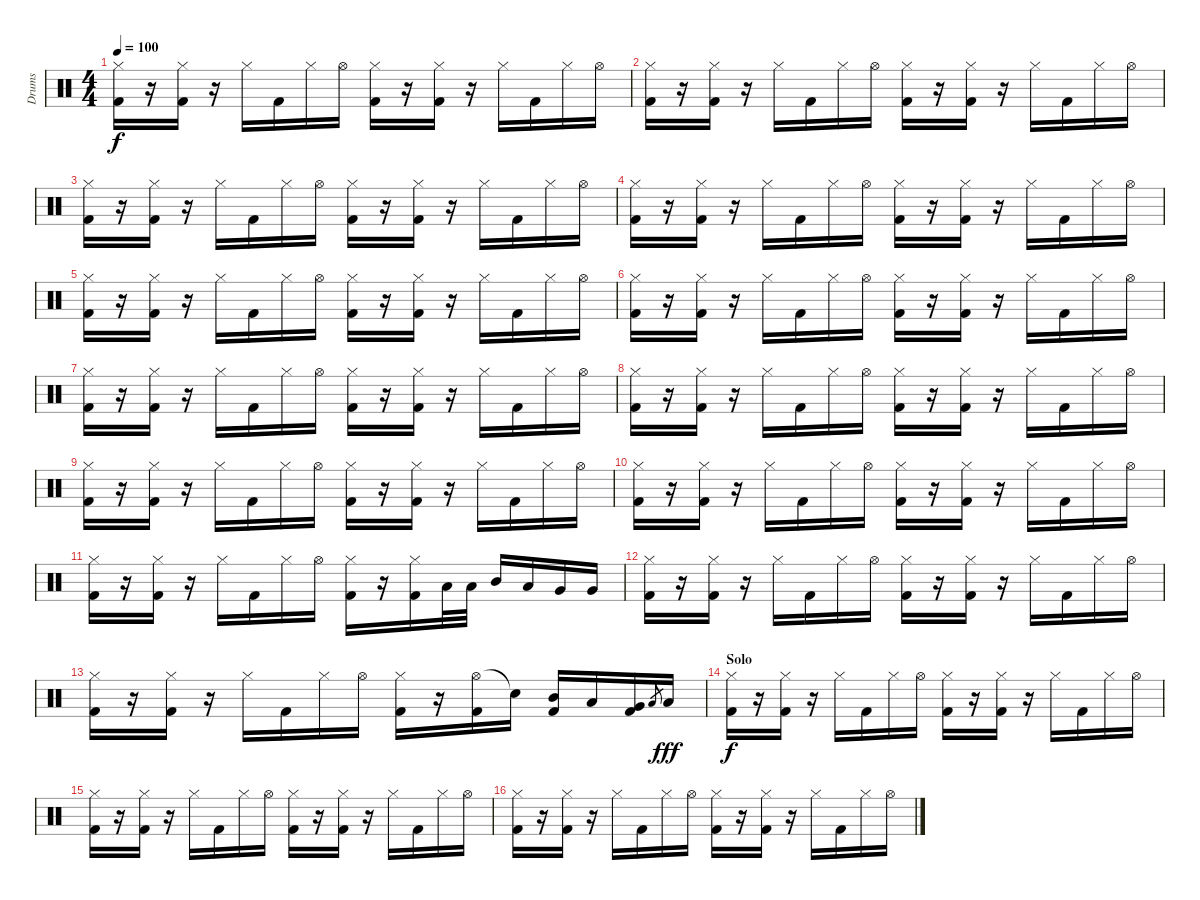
\track ("Drums" "Drums") {instrument percussion}
\staff {score}
\articulation defaults
\ts (4 4)
\tempo 100
\clef neutral
\ks c
("Hi-Hat (closed)" "Kick (hit) 2").16{dy f} r.16 ("Hi-Hat (closed)" "Kick (hit) 2").16 r.16 "Hi-Hat (closed)".16 "Kick (hit) 2".16 "Hi-Hat (closed)".16 "Hi-Hat (open)".16 ("Hi-Hat (closed)" "Kick (hit) 2").16 r.16 ("Hi-Hat (closed)" "Kick (hit) 2").16 r.16 "Hi-Hat (closed)".16 "Kick (hit) 2".16 "Hi-Hat (closed)".16 "Hi-Hat (open)".16 |
("Hi-Hat (closed)" "Kick (hit) 2").16 r.16 ("Hi-Hat (closed)" "Kick (hit) 2").16 r.16 "Hi-Hat (closed)".16 "Kick (hit) 2".16 "Hi-Hat (closed)".16 "Hi-Hat (open)".16 ("Hi-Hat (closed)" "Kick (hit) 2").16 r.16 ("Hi-Hat (closed)" "Kick (hit) 2").16 r.16 "Hi-Hat (closed)".16 "Kick (hit) 2".16 "Hi-Hat (closed)".16 "Hi-Hat (open)".16 |
("Hi-Hat (closed)" "Kick (hit) 2").16 r.16 ("Hi-Hat (closed)" "Kick (hit) 2").16 r.16 "Hi-Hat (closed)".16 "Kick (hit) 2".16 "Hi-Hat (closed)".16 "Hi-Hat (open)".16 ("Hi-Hat (closed)" "Kick (hit) 2").16 r.16 ("Hi-Hat (closed)" "Kick (hit) 2").16 r.16 "Hi-Hat (closed)".16 "Kick (hit) 2".16 "Hi-Hat (closed)".16 "Hi-Hat (open)".16 |
("Hi-Hat (closed)" "Kick (hit) 2").16 r.16 ("Hi-Hat (closed)" "Kick (hit) 2").16 r.16 "Hi-Hat (closed)".16 "Kick (hit) 2".16 "Hi-Hat (closed)".16 "Hi-Hat (open)".16 ("Hi-Hat (closed)" "Kick (hit) 2").16 r.16 ("Hi-Hat (closed)" "Kick (hit) 2").16 r.16 "Hi-Hat (closed)".16 "Kick (hit) 2".16 "Hi-Hat (closed)".16 "Hi-Hat (open)".16 |
("Hi-Hat (closed)" "Kick (hit) 2").16 r.16 ("Hi-Hat (closed)" "Kick (hit) 2").16 r.16 "Hi-Hat (closed)".16 "Kick (hit) 2".16 "Hi-Hat (closed)".16 "Hi-Hat (open)".16 ("Hi-Hat (closed)" "Kick (hit) 2").16 r.16 ("Hi-Hat (closed)" "Kick (hit) 2").16 r.16 "Hi-Hat (closed)".16 "Kick (hit) 2".16 "Hi-Hat (closed)".16 "Hi-Hat (open)".16 |
("Hi-Hat (closed)" "Kick (hit) 2").16 r.16 ("Hi-Hat (closed)" "Kick (hit) 2").16 r.16 "Hi-Hat (closed)".16 "Kick (hit) 2".16 "Hi-Hat (closed)".16 "Hi-Hat (open)".16 ("Hi-Hat (closed)" "Kick (hit) 2").16 r.16 ("Hi-Hat (closed)" "Kick (hit) 2").16 r.16 "Hi-Hat (closed)".16 "Kick (hit) 2".16 "Hi-Hat (closed)".16 "Hi-Hat (open)".16 |
("Hi-Hat (closed)" "Kick (hit) 2").16 r.16 ("Hi-Hat (closed)" "Kick (hit) 2").16 r.16 "Hi-Hat (closed)".16 "Kick (hit) 2".16 "Hi-Hat (closed)".16 "Hi-Hat (open)".16 ("Hi-Hat (closed)" "Kick (hit) 2").16 r.16 ("Hi-Hat (closed)" "Kick (hit) 2").16 r.16 "Hi-Hat (closed)".16 "Kick (hit) 2".16 "Hi-Hat (closed)".16 "Hi-Hat (open)".16 |
("Hi-Hat (closed)" "Kick (hit) 2").16 r.16 ("Hi-Hat (closed)" "Kick (hit) 2").16 r.16 "Hi-Hat (closed)".16 "Kick (hit) 2".16 "Hi-Hat (closed)".16 "Hi-Hat (open)".16 ("Hi-Hat (closed)" "Kick (hit) 2").16 r.16 ("Hi-Hat (closed)" "Kick (hit) 2").16 r.16 "Hi-Hat (closed)".16 "Kick (hit) 2".16 "Hi-Hat (closed)".16 "Hi-Hat (open)".16 |
("Hi-Hat (closed)" "Kick (hit) 2").16 r.16 ("Hi-Hat (closed)" "Kick (hit) 2").16 r.16 "Hi-Hat (closed)".16 "Kick (hit) 2".16 "Hi-Hat (closed)".16 "Hi-Hat (open)".16 ("Hi-Hat (closed)" "Kick (hit) 2").16 r.16 ("Hi-Hat (closed)" "Kick (hit) 2").16 r.16 "Hi-Hat (closed)".16 "Kick (hit) 2".16 "Hi-Hat (closed)".16 "Hi-Hat (open)".16 |
("Hi-Hat (closed)" "Kick (hit) 2").16 r.16 ("Hi-Hat (closed)" "Kick (hit) 2").16 r.16 "Hi-Hat (closed)".16 "Kick (hit) 2".16 "Hi-Hat (closed)".16 "Hi-Hat (open)".16 ("Hi-Hat (closed)" "Kick (hit) 2").16 r.16 ("Hi-Hat (closed)" "Kick (hit) 2").16 r.16 "Hi-Hat (closed)".16 "Kick (hit) 2".16 "Hi-Hat (closed)".16 "Hi-Hat (open)".16 |
("Hi-Hat (closed)" "Kick (hit) 2").16 r.16 ("Hi-Hat (closed)" "Kick (hit) 2").16 r.16 "Hi-Hat (closed)".16 "Kick (hit) 2".16 "Hi-Hat (closed)".16 "Hi-Hat (open)".16 ("Hi-Hat (closed)" "Kick (hit) 2").16 r.16 ("Hi-Hat (closed)" "Kick (hit) 2").16 "Low Tom (hit)".32 "Low Tom (hit)".32 "Mid Tom (hit)".16 "Low Tom (hit)".16 "Very Low Tom (hit)".16 "Very Low Tom (hit)".16 |
("Hi-Hat (closed)" "Kick (hit) 2").16 r.16 ("Hi-Hat (closed)" "Kick (hit) 2").16 r.16 "Hi-Hat (closed)".16 "Kick (hit) 2".16 "Hi-Hat (closed)".16 "Hi-Hat (open)".16 ("Hi-Hat (closed)" "Kick (hit) 2").16 r.16 ("Hi-Hat (closed)" "Kick (hit) 2").16 r.16 "Hi-Hat (closed)".16 "Kick (hit) 2".16 "Hi-Hat (closed)".16 "Hi-Hat (open)".16 |
("Hi-Hat (closed)" "Kick (hit) 2").16 r.16 ("Hi-Hat (closed)" "Kick (hit) 2").16 r.16 "Hi-Hat (closed)".16 "Kick (hit) 2".16 "Hi-Hat (closed)".16 "Hi-Hat (open)".16 ("Hi-Hat (closed)" "Kick (hit) 2").16 r.16 ("Hi-Hat (open)" "Kick (hit) 2").16 "Snare (hit)"{t}.16 ("Mid Tom (hit)" "Kick (hit) 2").16 "Low Tom (hit)".16 ("Very Low Tom (hit)" "Kick (hit) 2").16 "Low Floor Tom (hit)".8{gr} "Low Floor Tom (hit)".16{dy fff} |
\section ("" "Solo")
("Hi-Hat (closed)" "Kick (hit) 2").16{dy f} r.16 ("Hi-Hat (closed)" "Kick (hit) 2").16 r.16 "Hi-Hat (closed)".16 "Kick (hit) 2".16 "Hi-Hat (closed)".16 "Hi-Hat (open)".16 ("Hi-Hat (closed)" "Kick (hit) 2").16 r.16 ("Hi-Hat (closed)" "Kick (hit) 2").16 r.16 "Hi-Hat (closed)".16 "Kick (hit) 2".16 "Hi-Hat (closed)".16 "Hi-Hat (open)".16 |
("Hi-Hat (closed)" "Kick (hit) 2").16 r.16 ("Hi-Hat (closed)" "Kick (hit) 2").16 r.16 "Hi-Hat (closed)".16 "Kick (hit) 2".16 "Hi-Hat (closed)".16 "Hi-Hat (open)".16 ("Hi-Hat (closed)" "Kick (hit) 2").16 r.16 ("Hi-Hat (closed)" "Kick (hit) 2").16 r.16 "Hi-Hat (closed)".16 "Kick (hit) 2".16 "Hi-Hat (closed)".16 "Hi-Hat (open)".16 |
("Hi-Hat (closed)" "Kick (hit) 2").16 r.16 ("Hi-Hat (closed)" "Kick (hit) 2").16 r.16 "Hi-Hat (closed)".16 "Kick (hit) 2".16 "Hi-Hat (closed)".16 "Hi-Hat (open)".16 ("Hi-Hat (closed)" "Kick (hit) 2").16 r.16 ("Hi-Hat (closed)" "Kick (hit) 2").16 r.16 "Hi-Hat (closed)".16 "Kick (hit) 2".16 "Hi-Hat (closed)".16 "Hi-Hat (open)".16
